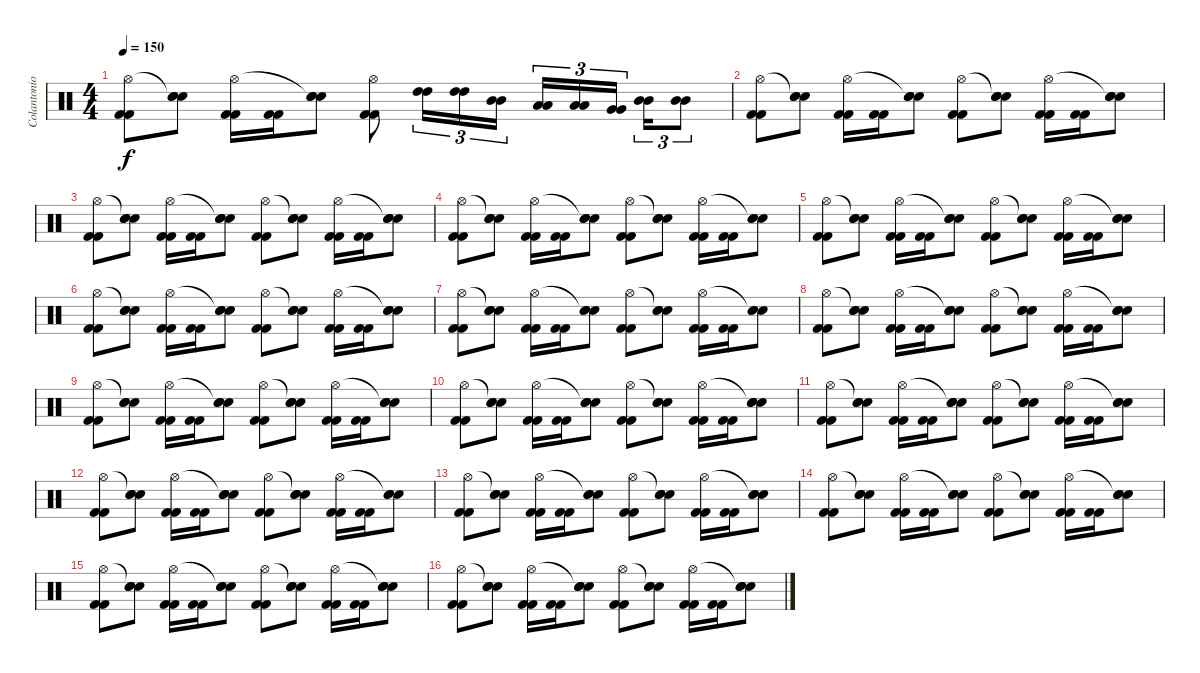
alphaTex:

\track ("Colantonio (Bateria)" "Colantonio") {instrument percussion}
\staff {score}
\articulation defaults
\ts (4 4)
\tempo 150
\clef neutral
\ks c
("Kick (hit) 2" "Kick (hit) 2" "Hi-Hat (open)").8{dy f} ("Snare (hit) 2" "Snare (hit) 2" "Snare (hit)"{t}).8 ("Kick (hit) 2" "Kick (hit) 2" "Hi-Hat (open)").16 ("Kick (hit) 2" "Kick (hit) 2").16 ("Snare (hit) 2" "Snare (hit) 2" "Snare (hit)"{t}).8 ("Kick (hit) 2" "Kick (hit) 2" "Hi-Hat (open)").8 ("High Tom (hit)" "High Tom (hit)").16{tu (3 2)} ("High Tom (hit)" "High Tom (hit)").16{tu (3 2)} ("Mid Tom (hit)" "Mid Tom (hit)").16{tu (3 2)} ("Low Tom (hit)" "Low Tom (hit)").16{tu (3 2)} ("Low Tom (hit)" "Low Tom (hit)").16{tu (3 2)} ("Very Low Tom (hit)" "Very Low Tom (hit)").16{tu (3 2)} ("Mid Tom (hit)" "Mid Tom (hit)").16{tu (3 2)} ("Mid Tom (hit)" "Mid Tom (hit)").8{tu (3 2)} |
("Kick (hit) 2" "Kick (hit) 2" "Hi-Hat (open)").8 ("Snare (hit) 2" "Snare (hit) 2" "Snare (hit)"{t}).8 ("Kick (hit) 2" "Kick (hit) 2" "Hi-Hat (open)").16 ("Kick (hit) 2" "Kick (hit) 2").16 ("Snare (hit) 2" "Snare (hit) 2" "Snare (hit)"{t}).8 ("Kick (hit) 2" "Kick (hit) 2" "Hi-Hat (open)").8 ("Snare (hit) 2" "Snare (hit) 2" "Snare (hit)"{t}).8 ("Kick (hit) 2" "Kick (hit) 2" "Hi-Hat (open)").16 ("Kick (hit) 2" "Kick (hit) 2").16 ("Snare (hit) 2" "Snare (hit) 2" "Snare (hit)"{t}).8 |
("Kick (hit) 2" "Kick (hit) 2" "Hi-Hat (open)").8 ("Snare (hit) 2" "Snare (hit) 2" "Snare (hit)"{t}).8 ("Kick (hit) 2" "Kick (hit) 2" "Hi-Hat (open)").16 ("Kick (hit) 2" "Kick (hit) 2").16 ("Snare (hit) 2" "Snare (hit) 2" "Snare (hit)"{t}).8 ("Kick (hit) 2" "Kick (hit) 2" "Hi-Hat (open)").8 ("Snare (hit) 2" "Snare (hit) 2" "Snare (hit)"{t}).8 ("Kick (hit) 2" "Kick (hit) 2" "Hi-Hat (open)").16 ("Kick (hit) 2" "Kick (hit) 2").16 ("Snare (hit) 2" "Snare (hit) 2" "Snare (hit)"{t}).8 |
("Kick (hit) 2" "Kick (hit) 2" "Hi-Hat (open)").8 ("Snare (hit) 2" "Snare (hit) 2" "Snare (hit)"{t}).8 ("Kick (hit) 2" "Kick (hit) 2" "Hi-Hat (open)").16 ("Kick (hit) 2" "Kick (hit) 2").16 ("Snare (hit) 2" "Snare (hit) 2" "Snare (hit)"{t}).8 ("Kick (hit) 2" "Kick (hit) 2" "Hi-Hat (open)").8 ("Snare (hit) 2" "Snare (hit) 2" "Snare (hit)"{t}).8 ("Kick (hit) 2" "Kick (hit) 2" "Hi-Hat (open)").16 ("Kick (hit) 2" "Kick (hit) 2").16 ("Snare (hit) 2" "Snare (hit) 2" "Snare (hit)"{t}).8 |
("Kick (hit) 2" "Kick (hit) 2" "Hi-Hat (open)").8 ("Snare (hit) 2" "Snare (hit) 2" "Snare (hit)"{t}).8 ("Kick (hit) 2" "Kick (hit) 2" "Hi-Hat (open)").16 ("Kick (hit) 2" "Kick (hit) 2").16 ("Snare (hit) 2" "Snare (hit) 2" "Snare (hit)"{t}).8 ("Kick (hit) 2" "Kick (hit) 2" "Hi-Hat (open)").8 ("Snare (hit) 2" "Snare (hit) 2" "Snare (hit)"{t}).8 ("Kick (hit) 2" "Kick (hit) 2" "Hi-Hat (open)").16 ("Kick (hit) 2" "Kick (hit) 2").16 ("Snare (hit) 2" "Snare (hit) 2" "Snare (hit)"{t}).8 |
("Kick (hit) 2" "Kick (hit) 2" "Hi-Hat (open)").8 ("Snare (hit) 2" "Snare (hit) 2" "Snare (hit)"{t}).8 ("Kick (hit) 2" "Kick (hit) 2" "Hi-Hat (open)").16 ("Kick (hit) 2" "Kick (hit) 2").16 ("Snare (hit) 2" "Snare (hit) 2" "Snare (hit)"{t}).8 ("Kick (hit) 2" "Kick (hit) 2" "Hi-Hat (open)").8 ("Snare (hit) 2" "Snare (hit) 2" "Snare (hit)"{t}).8 ("Kick (hit) 2" "Kick (hit) 2" "Hi-Hat (open)").16 ("Kick (hit) 2" "Kick (hit) 2").16 ("Snare (hit) 2" "Snare (hit) 2" "Snare (hit)"{t}).8 |
("Kick (hit) 2" "Kick (hit) 2" "Hi-Hat (open)").8 ("Snare (hit) 2" "Snare (hit) 2" "Snare (hit)"{t}).8 ("Kick (hit) 2" "Kick (hit) 2" "Hi-Hat (open)").16 ("Kick (hit) 2" "Kick (hit) 2").16 ("Snare (hit) 2" "Snare (hit) 2" "Snare (hit)"{t}).8 ("Kick (hit) 2" "Kick (hit) 2" "Hi-Hat (open)").8 ("Snare (hit) 2" "Snare (hit) 2" "Snare (hit)"{t}).8 ("Kick (hit) 2" "Kick (hit) 2" "Hi-Hat (open)").16 ("Kick (hit) 2" "Kick (hit) 2").16 ("Snare (hit) 2" "Snare (hit) 2" "Snare (hit)"{t}).8 |
("Kick (hit) 2" "Kick (hit) 2" "Hi-Hat (open)").8 ("Snare (hit) 2" "Snare (hit) 2" "Snare (hit)"{t}).8 ("Kick (hit) 2" "Kick (hit) 2" "Hi-Hat (open)").16 ("Kick (hit) 2" "Kick (hit) 2").16 ("Snare (hit) 2" "Snare (hit) 2" "Snare (hit)"{t}).8 ("Kick (hit) 2" "Kick (hit) 2" "Hi-Hat (open)").8 ("Snare (hit) 2" "Snare (hit) 2" "Snare (hit)"{t}).8 ("Kick (hit) 2" "Kick (hit) 2" "Hi-Hat (open)").16 ("Kick (hit) 2" "Kick (hit) 2").16 ("Snare (hit) 2" "Snare (hit) 2" "Snare (hit)"{t}).8 |
("Kick (hit) 2" "Kick (hit) 2" "Hi-Hat (open)").8 ("Snare (hit) 2" "Snare (hit) 2" "Snare (hit)"{t}).8 ("Kick (hit) 2" "Kick (hit) 2" "Hi-Hat (open)").16 ("Kick (hit) 2" "Kick (hit) 2").16 ("Snare (hit) 2" "Snare (hit) 2" "Snare (hit)"{t}).8 ("Kick (hit) 2" "Kick (hit) 2" "Hi-Hat (open)").8 ("Snare (hit) 2" "Snare (hit) 2" "Snare (hit)"{t}).8 ("Kick (hit) 2" "Kick (hit) 2" "Hi-Hat (open)").16 ("Kick (hit) 2" "Kick (hit) 2").16 ("Snare (hit) 2" "Snare (hit) 2" "Snare (hit)"{t}).8 |
("Kick (hit) 2" "Kick (hit) 2" "Hi-Hat (open)").8 ("Snare (hit) 2" "Snare (hit) 2" "Snare (hit)"{t}).8 ("Kick (hit) 2" "Kick (hit) 2" "Hi-Hat (open)").16 ("Kick (hit) 2" "Kick (hit) 2").16 ("Snare (hit) 2" "Snare (hit) 2" "Snare (hit)"{t}).8 ("Kick (hit) 2" "Kick (hit) 2" "Hi-Hat (open)").8 ("Snare (hit) 2" "Snare (hit) 2" "Snare (hit)"{t}).8 ("Kick (hit) 2" "Kick (hit) 2" "Hi-Hat (open)").16 ("Kick (hit) 2" "Kick (hit) 2").16 ("Snare (hit) 2" "Snare (hit) 2" "Snare (hit)"{t}).8 |
("Kick (hit) 2" "Kick (hit) 2" "Hi-Hat (open)").8 ("Snare (hit) 2" "Snare (hit) 2" "Snare (hit)"{t}).8 ("Kick (hit) 2" "Kick (hit) 2" "Hi-Hat (open)").16 ("Kick (hit) 2" "Kick (hit) 2").16 ("Snare (hit) 2" "Snare (hit) 2" "Snare (hit)"{t}).8 ("Kick (hit) 2" "Kick (hit) 2" "Hi-Hat (open)").8 ("Snare (hit) 2" "Snare (hit) 2" "Snare (hit)"{t}).8 ("Kick (hit) 2" "Kick (hit) 2" "Hi-Hat (open)").16 ("Kick (hit) 2" "Kick (hit) 2").16 ("Snare (hit) 2" "Snare (hit) 2" "Snare (hit)"{t}).8 |
("Kick (hit) 2" "Kick (hit) 2" "Hi-Hat (open)").8 ("Snare (hit) 2" "Snare (hit) 2" "Snare (hit)"{t}).8 ("Kick (hit) 2" "Kick (hit) 2" "Hi-Hat (open)").16 ("Kick (hit) 2" "Kick (hit) 2").16 ("Snare (hit) 2" "Snare (hit) 2" "Snare (hit)"{t}).8 ("Kick (hit) 2" "Kick (hit) 2" "Hi-Hat (open)").8 ("Snare (hit) 2" "Snare (hit) 2" "Snare (hit)"{t}).8 ("Kick (hit) 2" "Kick (hit) 2" "Hi-Hat (open)").16 ("Kick (hit) 2" "Kick (hit) 2").16 ("Snare (hit) 2" "Snare (hit) 2" "Snare (hit)"{t}).8 |
("Kick (hit) 2" "Kick (hit) 2" "Hi-Hat (open)").8 ("Snare (hit) 2" "Snare (hit) 2" "Snare (hit)"{t}).8 ("Kick (hit) 2" "Kick (hit) 2" "Hi-Hat (open)").16 ("Kick (hit) 2" "Kick (hit) 2").16 ("Snare (hit) 2" "Snare (hit) 2" "Snare (hit)"{t}).8 ("Kick (hit) 2" "Kick (hit) 2" "Hi-Hat (open)").8 ("Snare (hit) 2" "Snare (hit) 2" "Snare (hit)"{t}).8 ("Kick (hit) 2" "Kick (hit) 2" "Hi-Hat (open)").16 ("Kick (hit) 2" "Kick (hit) 2").16 ("Snare (hit) 2" "Snare (hit) 2" "Snare (hit)"{t}).8 |
("Kick (hit) 2" "Kick (hit) 2" "Hi-Hat (open)").8 ("Snare (hit) 2" "Snare (hit) 2" "Snare (hit)"{t}).8 ("Kick (hit) 2" "Kick (hit) 2" "Hi-Hat (open)").16 ("Kick (hit) 2" "Kick (hit) 2").16 ("Snare (hit) 2" "Snare (hit) 2" "Snare (hit)"{t}).8 ("Kick (hit) 2" "Kick (hit) 2" "Hi-Hat (open)").8 ("Snare (hit) 2" "Snare (hit) 2" "Snare (hit)"{t}).8 ("Kick (hit) 2" "Kick (hit) 2" "Hi-Hat (open)").16 ("Kick (hit) 2" "Kick (hit) 2").16 ("Snare (hit) 2" "Snare (hit) 2" "Snare (hit)"{t}).8 |
("Kick (hit) 2" "Kick (hit) 2" "Hi-Hat (open)").8 ("Snare (hit) 2" "Snare (hit) 2" "Snare (hit)"{t}).8 ("Kick (hit) 2" "Kick (hit) 2" "Hi-Hat (open)").16 ("Kick (hit) 2" "Kick (hit) 2").16 ("Snare (hit) 2" "Snare (hit) 2" "Snare (hit)"{t}).8 ("Kick (hit) 2" "Kick (hit) 2" "Hi-Hat (open)").8 ("Snare (hit) 2" "Snare (hit) 2" "Snare (hit)"{t}).8 ("Kick (hit) 2" "Kick (hit) 2" "Hi-Hat (open)").16 ("Kick (hit) 2" "Kick (hit) 2").16 ("Snare (hit) 2" "Snare (hit) 2" "Snare (hit)"{t}).8 |
("Kick (hit) 2" "Kick (hit) 2" "Hi-Hat (open)").8 ("Snare (hit) 2" "Snare (hit) 2" "Snare (hit)"{t}).8 ("Kick (hit) 2" "Kick (hit) 2" "Hi-Hat (open)").16 ("Kick (hit) 2" "Kick (hit) 2").16 ("Snare (hit) 2" "Snare (hit) 2" "Snare (hit)"{t}).8 ("Kick (hit) 2" "Kick (hit) 2" "Hi-Hat (open)").8 ("Snare (hit) 2" "Snare (hit) 2" "Snare (hit)"{t}).8 ("Kick (hit) 2" "Kick (hit) 2" "Hi-Hat (open)").16 ("Kick (hit) 2" "Kick (hit) 2").16 ("Snare (hit) 2" "Snare (hit) 2" "Snare (hit)"{t}).8
